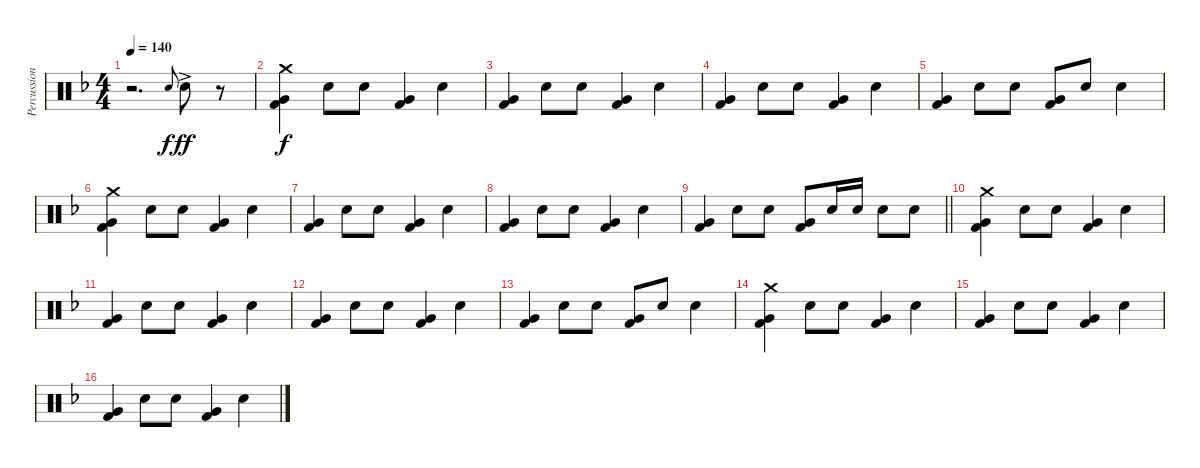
\track ("Percussion" "Percussion") {instrument percussion}
\staff {score}
\articulation defaults
\ts (4 4)
\tempo 140
\clef neutral
\ks dminor
r.2{d dy f} "Snare (hit) 2".8{gr onbeat} "Snare (hit) 2"{ac}.8{dy ff} r.8 |
("Crash medium (hit)" "Very Low Tom (hit)" "Kick (hit) 2").4{dy f} "Snare (hit) 2".8 "Snare (hit) 2".8 ("Very Low Tom (hit)" "Kick (hit) 2").4 "Snare (hit) 2".4 |
("Very Low Tom (hit)" "Kick (hit) 2").4 "Snare (hit) 2".8 "Snare (hit) 2".8 ("Very Low Tom (hit)" "Kick (hit) 2").4 "Snare (hit) 2".4 |
("Very Low Tom (hit)" "Kick (hit) 2").4 "Snare (hit) 2".8 "Snare (hit) 2".8 ("Very Low Tom (hit)" "Kick (hit) 2").4 "Snare (hit) 2".4 |
("Very Low Tom (hit)" "Kick (hit) 2").4 "Snare (hit) 2".8 "Snare (hit) 2".8 ("Very Low Tom (hit)" "Kick (hit) 2").8 "Snare (hit) 2".8 "Snare (hit) 2".4 |
("Crash medium (hit)" "Very Low Tom (hit)" "Kick (hit) 2").4 "Snare (hit) 2".8 "Snare (hit) 2".8 ("Very Low Tom (hit)" "Kick (hit) 2").4 "Snare (hit) 2".4 |
("Very Low Tom (hit)" "Kick (hit) 2").4 "Snare (hit) 2".8 "Snare (hit) 2".8 ("Very Low Tom (hit)" "Kick (hit) 2").4 "Snare (hit) 2".4 |
("Very Low Tom (hit)" "Kick (hit) 2").4 "Snare (hit) 2".8 "Snare (hit) 2".8 ("Very Low Tom (hit)" "Kick (hit) 2").4 "Snare (hit) 2".4 |
\barLineRight lightlight
("Very Low Tom (hit)" "Kick (hit) 2").4 "Snare (hit) 2".8 "Snare (hit) 2".8 ("Very Low Tom (hit)" "Kick (hit) 2").8 "Snare (hit) 2".16 "Snare (hit) 2".16 "Snare (hit) 2".8 "Snare (hit) 2".8 |
("Crash medium (hit)" "Very Low Tom (hit)" "Kick (hit) 2").4 "Snare (hit) 2".8 "Snare (hit) 2".8 ("Very Low Tom (hit)" "Kick (hit) 2").4 "Snare (hit) 2".4 |
("Very Low Tom (hit)" "Kick (hit) 2").4 "Snare (hit) 2".8 "Snare (hit) 2".8 ("Very Low Tom (hit)" "Kick (hit) 2").4 "Snare (hit) 2".4 |
("Very Low Tom (hit)" "Kick (hit) 2").4 "Snare (hit) 2".8 "Snare (hit) 2".8 ("Very Low Tom (hit)" "Kick (hit) 2").4 "Snare (hit) 2".4 |
("Very Low Tom (hit)" "Kick (hit) 2").4 "Snare (hit) 2".8 "Snare (hit) 2".8 ("Very Low Tom (hit)" "Kick (hit) 2").8 "Snare (hit) 2".8 "Snare (hit) 2".4 |
("Crash medium (hit)" "Very Low Tom (hit)" "Kick (hit) 2").4 "Snare (hit) 2".8 "Snare (hit) 2".8 ("Very Low Tom (hit)" "Kick (hit) 2").4 "Snare (hit) 2".4 |
("Very Low Tom (hit)" "Kick (hit) 2").4 "Snare (hit) 2".8 "Snare (hit) 2".8 ("Very Low Tom (hit)" "Kick (hit) 2").4 "Snare (hit) 2".4 |
("Very Low Tom (hit)" "Kick (hit) 2").4 "Snare (hit) 2".8 "Snare (hit) 2".8 ("Very Low Tom (hit)" "Kick (hit) 2").4 "Snare (hit) 2".4
